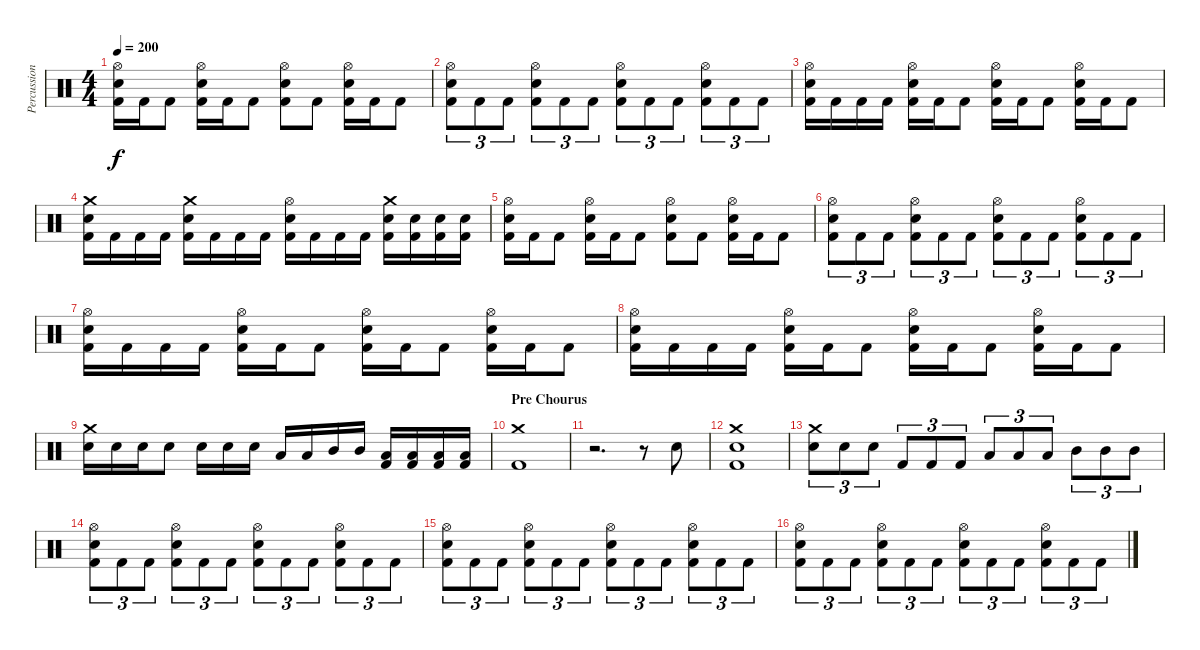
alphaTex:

\track ("Percussion" "Percussion") {instrument percussion}
\staff {score}
\articulation defaults
\ts (4 4)
\tempo 200
\clef neutral
\ks c
("Hi-Hat (open)" "Electric Snare (hit)" "Kick (hit) 2").16{dy f} "Kick (hit) 2".16 "Kick (hit) 2".8 ("Hi-Hat (open)" "Electric Snare (hit)" "Kick (hit) 2").16 "Kick (hit) 2".16 "Kick (hit) 2".8 ("Hi-Hat (open)" "Electric Snare (hit)" "Kick (hit) 2").8 "Kick (hit) 2".8 ("Hi-Hat (open)" "Electric Snare (hit)" "Kick (hit) 2").16 "Kick (hit) 2".16 "Kick (hit) 2".8 |
("Hi-Hat (open)" "Electric Snare (hit)" "Kick (hit) 2").8{tu (3 2)} "Kick (hit) 2".8{tu (3 2)} "Kick (hit) 2".8{tu (3 2)} ("Hi-Hat (open)" "Electric Snare (hit)" "Kick (hit) 2").8{tu (3 2)} "Kick (hit) 2".8{tu (3 2)} "Kick (hit) 2".8{tu (3 2)} ("Hi-Hat (open)" "Electric Snare (hit)" "Kick (hit) 2").8{tu (3 2)} "Kick (hit) 2".8{tu (3 2)} "Kick (hit) 2".8{tu (3 2)} ("Hi-Hat (open)" "Electric Snare (hit)" "Kick (hit) 2").8{tu (3 2)} "Kick (hit) 2".8{tu (3 2)} "Kick (hit) 2".8{tu (3 2)} |
("Hi-Hat (open)" "Electric Snare (hit)" "Kick (hit) 2").16 "Kick (hit) 2".16 "Kick (hit) 2".16 "Kick (hit) 2".16 ("Hi-Hat (open)" "Electric Snare (hit)" "Kick (hit) 2").16 "Kick (hit) 2".16 "Kick (hit) 2".8 ("Hi-Hat (open)" "Electric Snare (hit)" "Kick (hit) 2").16 "Kick (hit) 2".16 "Kick (hit) 2".8 ("Hi-Hat (open)" "Electric Snare (hit)" "Kick (hit) 2").16 "Kick (hit) 2".16 "Kick (hit) 2".8 |
("Crash medium (hit)" "Electric Snare (hit)" "Kick (hit) 2").16 "Kick (hit) 2".16 "Kick (hit) 2".16 "Kick (hit) 2".16 ("Crash medium (hit)" "Electric Snare (hit)" "Kick (hit) 2").16 "Kick (hit) 2".16 "Kick (hit) 2".16 "Kick (hit) 2".16 ("Hi-Hat (open)" "Electric Snare (hit)" "Kick (hit) 2").16 "Kick (hit) 2".16 "Kick (hit) 2".16 "Kick (hit) 2".16 ("Crash medium (hit)" "Electric Snare (hit)" "Kick (hit) 2").16 ("Electric Snare (hit)" "Kick (hit) 2").16 ("Electric Snare (hit)" "Kick (hit) 2").16 ("Electric Snare (hit)" "Kick (hit) 2").16 |
("Hi-Hat (open)" "Electric Snare (hit)" "Kick (hit) 2").16 "Kick (hit) 2".16 "Kick (hit) 2".8 ("Hi-Hat (open)" "Electric Snare (hit)" "Kick (hit) 2").16 "Kick (hit) 2".16 "Kick (hit) 2".8 ("Hi-Hat (open)" "Electric Snare (hit)" "Kick (hit) 2").8 "Kick (hit) 2".8 ("Hi-Hat (open)" "Electric Snare (hit)" "Kick (hit) 2").16 "Kick (hit) 2".16 "Kick (hit) 2".8 |
("Hi-Hat (open)" "Electric Snare (hit)" "Kick (hit) 2").8{tu (3 2)} "Kick (hit) 2".8{tu (3 2)} "Kick (hit) 2".8{tu (3 2)} ("Hi-Hat (open)" "Electric Snare (hit)" "Kick (hit) 2").8{tu (3 2)} "Kick (hit) 2".8{tu (3 2)} "Kick (hit) 2".8{tu (3 2)} ("Hi-Hat (open)" "Electric Snare (hit)" "Kick (hit) 2").8{tu (3 2)} "Kick (hit) 2".8{tu (3 2)} "Kick (hit) 2".8{tu (3 2)} ("Hi-Hat (open)" "Electric Snare (hit)" "Kick (hit) 2").8{tu (3 2)} "Kick (hit) 2".8{tu (3 2)} "Kick (hit) 2".8{tu (3 2)} |
("Hi-Hat (open)" "Electric Snare (hit)" "Kick (hit) 2").16 "Kick (hit) 2".16 "Kick (hit) 2".16 "Kick (hit) 2".16 ("Hi-Hat (open)" "Electric Snare (hit)" "Kick (hit) 2").16 "Kick (hit) 2".16 "Kick (hit) 2".8 ("Hi-Hat (open)" "Electric Snare (hit)" "Kick (hit) 2").16 "Kick (hit) 2".16 "Kick (hit) 2".8 ("Hi-Hat (open)" "Electric Snare (hit)" "Kick (hit) 2").16 "Kick (hit) 2".16 "Kick (hit) 2".8 |
("Hi-Hat (open)" "Electric Snare (hit)" "Kick (hit) 2").16 "Kick (hit) 2".16 "Kick (hit) 2".16 "Kick (hit) 2".16 ("Hi-Hat (open)" "Electric Snare (hit)" "Kick (hit) 2").16 "Kick (hit) 2".16 "Kick (hit) 2".8 ("Hi-Hat (open)" "Electric Snare (hit)" "Kick (hit) 2").16 "Kick (hit) 2".16 "Kick (hit) 2".8 ("Hi-Hat (open)" "Electric Snare (hit)" "Kick (hit) 2").16 "Kick (hit) 2".16 "Kick (hit) 2".8 |
("Crash medium (hit)" "Electric Snare (hit)").16 "Electric Snare (hit)".16 "Electric Snare (hit)".16 "Electric Snare (hit)".8 "Electric Snare (hit)".16 "Electric Snare (hit)".16 "Electric Snare (hit)".16 "Low Tom (hit)".16 "Low Tom (hit)".16 "Mid Tom (hit)".16 "Mid Tom (hit)".16 ("Low Floor Tom (hit)" "Kick (hit) 2").16 ("Low Floor Tom (hit)" "Kick (hit) 2").16 ("Low Floor Tom (hit)" "Kick (hit) 2").16 ("Low Floor Tom (hit)" "Kick (hit) 2").16 |
\section ("" "Pre Chourus")
("Crash medium (hit)" "Kick (hit) 2").1 |
r.2{d} r.8 "Electric Snare (hit)".8 |
("Crash medium (hit)" "Electric Snare (hit)" "Kick (hit) 2").1 |
("Crash medium (hit)" "Electric Snare (hit)").8{tu (3 2)} "Electric Snare (hit)".8{tu (3 2)} "Electric Snare (hit)".8{tu (3 2)} "Kick (hit) 2".8{tu (3 2)} "Kick (hit) 2".8{tu (3 2)} "Kick (hit) 2".8{tu (3 2)} "Low Tom (hit)".8{tu (3 2)} "Low Tom (hit)".8{tu (3 2)} "Low Tom (hit)".8{tu (3 2)} "Mid Tom (hit)".8{tu (3 2)} "Mid Tom (hit)".8{tu (3 2)} "Mid Tom (hit)".8{tu (3 2)} |
("Hi-Hat (open)" "Electric Snare (hit)" "Kick (hit) 2").8{tu (3 2)} "Kick (hit) 2".8{tu (3 2)} "Kick (hit) 2".8{tu (3 2)} ("Hi-Hat (open)" "Electric Snare (hit)" "Kick (hit) 2").8{tu (3 2)} "Kick (hit) 2".8{tu (3 2)} "Kick (hit) 2".8{tu (3 2)} ("Hi-Hat (open)" "Electric Snare (hit)" "Kick (hit) 2").8{tu (3 2)} "Kick (hit) 2".8{tu (3 2)} "Kick (hit) 2".8{tu (3 2)} ("Hi-Hat (open)" "Electric Snare (hit)" "Kick (hit) 2").8{tu (3 2)} "Kick (hit) 2".8{tu (3 2)} "Kick (hit) 2".8{tu (3 2)} |
("Hi-Hat (open)" "Electric Snare (hit)" "Kick (hit) 2").8{tu (3 2)} "Kick (hit) 2".8{tu (3 2)} "Kick (hit) 2".8{tu (3 2)} ("Hi-Hat (open)" "Electric Snare (hit)" "Kick (hit) 2").8{tu (3 2)} "Kick (hit) 2".8{tu (3 2)} "Kick (hit) 2".8{tu (3 2)} ("Hi-Hat (open)" "Electric Snare (hit)" "Kick (hit) 2").8{tu (3 2)} "Kick (hit) 2".8{tu (3 2)} "Kick (hit) 2".8{tu (3 2)} ("Hi-Hat (open)" "Electric Snare (hit)" "Kick (hit) 2").8{tu (3 2)} "Kick (hit) 2".8{tu (3 2)} "Kick (hit) 2".8{tu (3 2)} |
("Hi-Hat (open)" "Electric Snare (hit)" "Kick (hit) 2").8{tu (3 2)} "Kick (hit) 2".8{tu (3 2)} "Kick (hit) 2".8{tu (3 2)} ("Hi-Hat (open)" "Electric Snare (hit)" "Kick (hit) 2").8{tu (3 2)} "Kick (hit) 2".8{tu (3 2)} "Kick (hit) 2".8{tu (3 2)} ("Hi-Hat (open)" "Electric Snare (hit)" "Kick (hit) 2").8{tu (3 2)} "Kick (hit) 2".8{tu (3 2)} "Kick (hit) 2".8{tu (3 2)} ("Hi-Hat (open)" "Electric Snare (hit)" "Kick (hit) 2").8{tu (3 2)} "Kick (hit) 2".8{tu (3 2)} "Kick (hit) 2".8{tu (3 2)}
